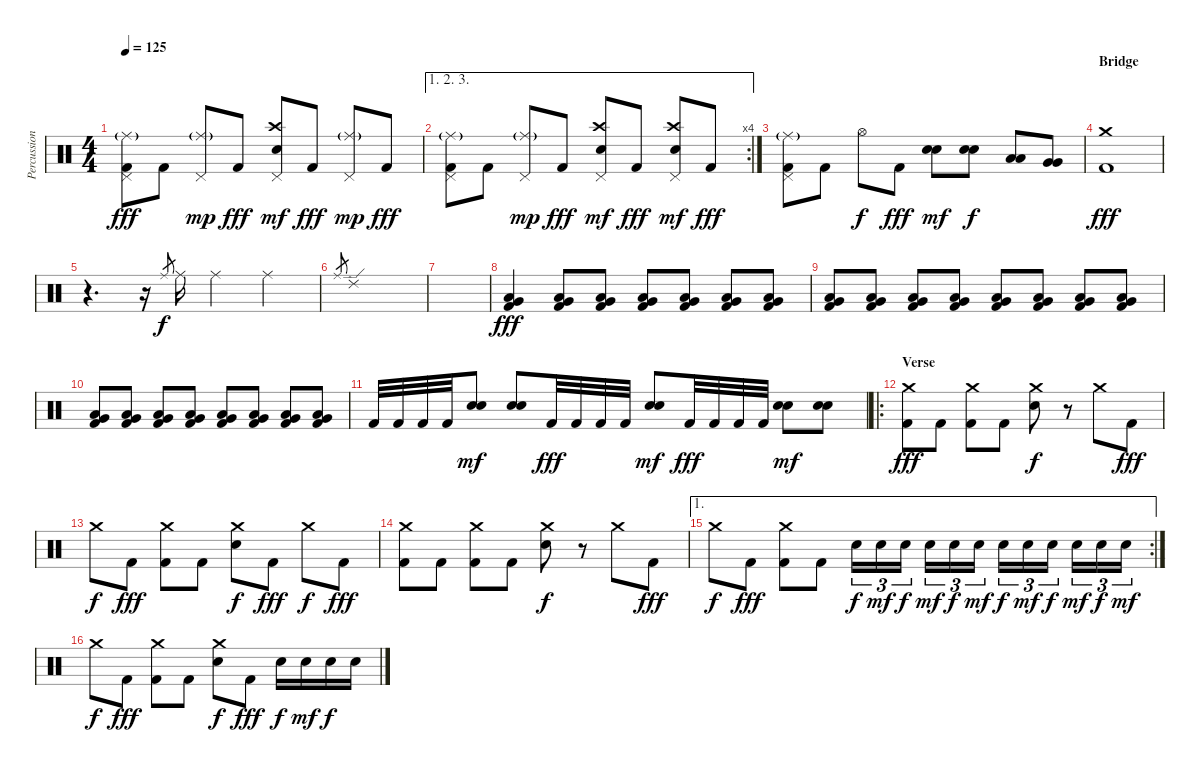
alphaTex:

\track ("Percussion" "Percussion") {instrument percussion}
\staff {score}
\articulation defaults
\ts (4 4)
\tempo 125
\clef neutral
\ks c
("Ride (middle)"{g} "Pedal Hi-Hat (hit)" "Kick (hit) 2").8{dy fff} "Kick (hit) 2".8 ("Ride (middle)"{g} "Pedal Hi-Hat (hit)").8{dy mp} "Kick (hit) 2".8{dy fff} ("Crash high (hit)" "Pedal Hi-Hat (hit)" "Electric Snare (hit)").8{dy mf} "Kick (hit) 2".8{dy fff} ("Ride (middle)"{g} "Pedal Hi-Hat (hit)").8{dy mp} "Kick (hit) 2".8{dy fff} |
\ae (1 2 3)
\rc 4
("Ride (middle)"{g} "Pedal Hi-Hat (hit)" "Kick (hit) 2").8 "Kick (hit) 2".8 ("Ride (middle)"{g} "Pedal Hi-Hat (hit)").8{dy mp} "Kick (hit) 2".8{dy fff} ("Crash high (hit)" "Pedal Hi-Hat (hit)" "Electric Snare (hit)").8{dy mf} "Kick (hit) 2".8{dy fff} ("Crash high (hit)" "Pedal Hi-Hat (hit)" "Electric Snare (hit)").8{dy mf} "Kick (hit) 2".8{dy fff} |
("Ride (middle)"{g} "Pedal Hi-Hat (hit)" "Kick (hit) 2").8 "Kick (hit) 2".8 "Hi-Hat (open)".8{dy f} "Kick (hit) 2".8{dy fff} ("Electric Snare (hit)" "Electric Snare (hit)").8{bu 30 dy mf} ("Electric Snare (hit)" "Electric Snare (hit)").8{bu 30 dy f} ("Low Tom (hit)" "Low Tom (hit)").8{bu 60} ("Very Low Tom (hit)" "Very Low Tom (hit)").8{bu 60} |
\section ("" "Bridge")
("Crash medium (hit)" "Kick (hit) 2").1{dy fff} |
r.4{d} r.16 "Ride (middle)".8{gr dy f} "Ride (middle)".16 "Ride (middle)".4 "Ride (middle)".4 |
"Ride (middle)".8{gr} "Ride (edge) 2".1 |
|
("Low Tom (hit)" "Very Low Tom (hit)" "Kick (hit) 2").4{dy fff} ("Low Tom (hit)" "Very Low Tom (hit)" "Kick (hit) 2").8 ("Low Tom (hit)" "Very Low Tom (hit)" "Kick (hit) 2").8 ("Low Tom (hit)" "Very Low Tom (hit)" "Kick (hit) 2").8 ("Low Tom (hit)" "Very Low Tom (hit)" "Kick (hit) 2").8 ("Low Tom (hit)" "Very Low Tom (hit)" "Kick (hit) 2").8 ("Low Tom (hit)" "Very Low Tom (hit)" "Kick (hit) 2").8 |
("Low Tom (hit)" "Very Low Tom (hit)" "Kick (hit) 2").8 ("Low Tom (hit)" "Very Low Tom (hit)" "Kick (hit) 2").8 ("Low Tom (hit)" "Very Low Tom (hit)" "Kick (hit) 2").8 ("Low Tom (hit)" "Very Low Tom (hit)" "Kick (hit) 2").8 ("Low Tom (hit)" "Very Low Tom (hit)" "Kick (hit) 2").8 ("Low Tom (hit)" "Very Low Tom (hit)" "Kick (hit) 2").8 ("Low Tom (hit)" "Very Low Tom (hit)" "Kick (hit) 2").8 ("Low Tom (hit)" "Very Low Tom (hit)" "Kick (hit) 2").8 |
("Low Tom (hit)" "Very Low Tom (hit)" "Kick (hit) 2").8 ("Low Tom (hit)" "Very Low Tom (hit)" "Kick (hit) 2").8 ("Low Tom (hit)" "Very Low Tom (hit)" "Kick (hit) 2").8 ("Low Tom (hit)" "Very Low Tom (hit)" "Kick (hit) 2").8 ("Low Tom (hit)" "Very Low Tom (hit)" "Kick (hit) 2").8 ("Low Tom (hit)" "Very Low Tom (hit)" "Kick (hit) 2").8 ("Low Tom (hit)" "Very Low Tom (hit)" "Kick (hit) 2").8 ("Low Tom (hit)" "Very Low Tom (hit)" "Kick (hit) 2").8 |
"Kick (hit) 2".32 "Kick (hit) 2".32 "Kick (hit) 2".32 "Kick (hit) 2".32 ("Electric Snare (hit)" "Electric Snare (hit)").8{bu 60 dy mf} ("Electric Snare (hit)" "Electric Snare (hit)").8{bu 60} "Kick (hit) 2".32{dy fff} "Kick (hit) 2".32 "Kick (hit) 2".32 "Kick (hit) 2".32 ("Electric Snare (hit)" "Electric Snare (hit)").8{bu 60 dy mf} "Kick (hit) 2".32{dy fff} "Kick (hit) 2".32 "Kick (hit) 2".32 "Kick (hit) 2".32 ("Electric Snare (hit)" "Electric Snare (hit)").8{bu 60 dy mf} ("Electric Snare (hit)" "Electric Snare (hit)").8{bu 60} |
\ro
\section ("" "Verse")
("Crash medium (hit)" "Kick (hit) 2").8{dy fff} "Kick (hit) 2".8 ("Crash medium (hit)" "Kick (hit) 2").8 "Kick (hit) 2".8 ("Crash medium (hit)" "Electric Snare (hit)").8{dy f} r.8 "Crash medium (hit)".8 "Kick (hit) 2".8{dy fff} |
"Crash medium (hit)".8{dy f} "Kick (hit) 2".8{dy fff} ("Crash medium (hit)" "Kick (hit) 2").8 "Kick (hit) 2".8 ("Crash medium (hit)" "Electric Snare (hit)").8{dy f} "Kick (hit) 2".8{dy fff} "Crash medium (hit)".8{dy f} "Kick (hit) 2".8{dy fff} |
("Crash medium (hit)" "Kick (hit) 2").8 "Kick (hit) 2".8 ("Crash medium (hit)" "Kick (hit) 2").8 "Kick (hit) 2".8 ("Crash medium (hit)" "Electric Snare (hit)").8{dy f} r.8 "Crash medium (hit)".8 "Kick (hit) 2".8{dy fff} |
\ae 1
\rc 2 "Crash medium (hit)".8{dy f} "Kick (hit) 2".8{dy fff}
("Crash medium (hit)" "Kick (hit) 2").8 "Kick (hit) 2".8 "Electric Snare (hit)".16{tu (3 2) dy f} "Electric Snare (hit)".16{tu (3 2) dy mf} "Electric Snare (hit)".16{tu (3 2) dy f} "Electric Snare (hit)".16{tu (3 2) dy mf} "Electric Snare (hit)".16{tu (3 2) dy f} "Electric Snare (hit)".16{tu (3 2) dy mf} "Electric Snare (hit)".16{tu (3 2) dy f} "Electric Snare (hit)".16{tu (3 2) dy mf} "Electric Snare (hit)".16{tu (3 2) dy f} "Electric Snare (hit)".16{tu (3 2) dy mf} "Electric Snare (hit)".16{tu (3 2) dy f} "Electric Snare (hit)".16{tu (3 2) dy mf} |
"Crash medium (hit)".8{dy f} "Kick (hit) 2".8{dy fff} ("Crash medium (hit)" "Kick (hit) 2").8 "Kick (hit) 2".8 ("Crash medium (hit)" "Electric Snare (hit)").8{dy f} "Kick (hit) 2".8{dy fff} "Electric Snare (hit)".16{dy f} "Electric Snare (hit)".16{dy mf} "Electric Snare (hit)".16{dy f} "Electric Snare (hit)".16
